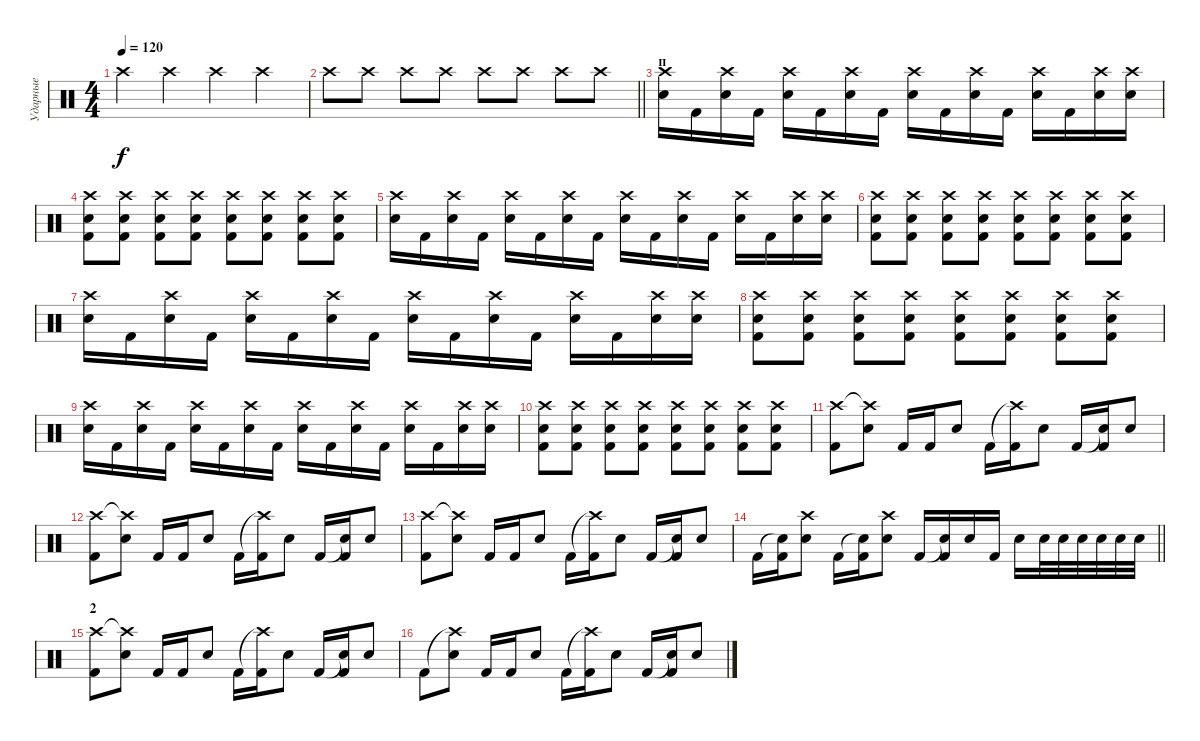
\track ("Ударные" "Ударные") {instrument percussion}
\staff {score}
\articulation defaults
\ts (4 4)
\tempo 120
\clef neutral
\ks c "Crash high (hit)".4{dy f} "Crash high (hit)".4 "Crash high (hit)".4 "Crash high (hit)".4
|
\barLineRight lightlight "Crash high (hit)".8 "Crash high (hit)".8 "Crash high (hit)".8 "Crash high (hit)".8 "Crash high (hit)".8 "Crash high (hit)".8 "Crash high (hit)".8 "Crash high (hit)".8
|
\section ("" "п")
("Snare (hit) 2" "Crash high (hit)").16 "Kick (hit) 2".16 ("Snare (hit) 2" "Crash high (hit)").16 "Kick (hit) 2".16 ("Snare (hit) 2" "Crash high (hit)").16 "Kick (hit) 2".16 ("Snare (hit) 2" "Crash high (hit)").16 "Kick (hit) 2".16 ("Snare (hit) 2" "Crash high (hit)").16 "Kick (hit) 2".16 ("Snare (hit) 2" "Crash high (hit)").16 "Kick (hit) 2".16 ("Snare (hit) 2" "Crash high (hit)").16 "Kick (hit) 2".16 ("Snare (hit) 2" "Crash high (hit)").16 ("Crash high (hit)" "Electric Snare (hit)").16 |
("Crash high (hit)" "Kick (hit) 2" "Electric Snare (hit)").8 ("Crash high (hit)" "Kick (hit) 2" "Electric Snare (hit)").8 ("Crash high (hit)" "Kick (hit) 2" "Electric Snare (hit)").8 ("Crash high (hit)" "Kick (hit) 2" "Electric Snare (hit)").8 ("Crash high (hit)" "Kick (hit) 2" "Electric Snare (hit)").8 ("Crash high (hit)" "Kick (hit) 2" "Electric Snare (hit)").8 ("Crash high (hit)" "Kick (hit) 2" "Electric Snare (hit)").8 ("Crash high (hit)" "Kick (hit) 2" "Electric Snare (hit)").8 |
("Snare (hit) 2" "Crash high (hit)").16 "Kick (hit) 2".16 ("Snare (hit) 2" "Crash high (hit)").16 "Kick (hit) 2".16 ("Snare (hit) 2" "Crash high (hit)").16 "Kick (hit) 2".16 ("Snare (hit) 2" "Crash high (hit)").16 "Kick (hit) 2".16 ("Snare (hit) 2" "Crash high (hit)").16 "Kick (hit) 2".16 ("Snare (hit) 2" "Crash high (hit)").16 "Kick (hit) 2".16 ("Snare (hit) 2" "Crash high (hit)").16 "Kick (hit) 2".16 ("Snare (hit) 2" "Crash high (hit)").16 ("Crash high (hit)" "Electric Snare (hit)").16 |
("Crash high (hit)" "Kick (hit) 2" "Electric Snare (hit)").8 ("Crash high (hit)" "Kick (hit) 2" "Electric Snare (hit)").8 ("Crash high (hit)" "Kick (hit) 2" "Electric Snare (hit)").8 ("Crash high (hit)" "Kick (hit) 2" "Electric Snare (hit)").8 ("Crash high (hit)" "Kick (hit) 2" "Electric Snare (hit)").8 ("Crash high (hit)" "Kick (hit) 2" "Electric Snare (hit)").8 ("Crash high (hit)" "Kick (hit) 2" "Electric Snare (hit)").8 ("Crash high (hit)" "Kick (hit) 2" "Electric Snare (hit)").8 |
("Snare (hit) 2" "Crash high (hit)").16 "Kick (hit) 2".16 ("Snare (hit) 2" "Crash high (hit)").16 "Kick (hit) 2".16 ("Snare (hit) 2" "Crash high (hit)").16 "Kick (hit) 2".16 ("Snare (hit) 2" "Crash high (hit)").16 "Kick (hit) 2".16 ("Snare (hit) 2" "Crash high (hit)").16 "Kick (hit) 2".16 ("Snare (hit) 2" "Crash high (hit)").16 "Kick (hit) 2".16 ("Snare (hit) 2" "Crash high (hit)").16 "Kick (hit) 2".16 ("Snare (hit) 2" "Crash high (hit)").16 ("Crash high (hit)" "Electric Snare (hit)").16 |
("Crash high (hit)" "Kick (hit) 2" "Electric Snare (hit)").8 ("Crash high (hit)" "Kick (hit) 2" "Electric Snare (hit)").8 ("Crash high (hit)" "Kick (hit) 2" "Electric Snare (hit)").8 ("Crash high (hit)" "Kick (hit) 2" "Electric Snare (hit)").8 ("Crash high (hit)" "Kick (hit) 2" "Electric Snare (hit)").8 ("Crash high (hit)" "Kick (hit) 2" "Electric Snare (hit)").8 ("Crash high (hit)" "Kick (hit) 2" "Electric Snare (hit)").8 ("Crash high (hit)" "Kick (hit) 2" "Electric Snare (hit)").8 |
("Snare (hit) 2" "Crash high (hit)").16 "Kick (hit) 2".16 ("Snare (hit) 2" "Crash high (hit)").16 "Kick (hit) 2".16 ("Snare (hit) 2" "Crash high (hit)").16 "Kick (hit) 2".16 ("Snare (hit) 2" "Crash high (hit)").16 "Kick (hit) 2".16 ("Snare (hit) 2" "Crash high (hit)").16 "Kick (hit) 2".16 ("Snare (hit) 2" "Crash high (hit)").16 "Kick (hit) 2".16 ("Snare (hit) 2" "Crash high (hit)").16 "Kick (hit) 2".16 ("Snare (hit) 2" "Crash high (hit)").16 ("Crash high (hit)" "Electric Snare (hit)").16 |
("Crash high (hit)" "Kick (hit) 2" "Electric Snare (hit)").8 ("Crash high (hit)" "Kick (hit) 2" "Electric Snare (hit)").8 ("Crash high (hit)" "Kick (hit) 2" "Electric Snare (hit)").8 ("Crash high (hit)" "Kick (hit) 2" "Electric Snare (hit)").8 ("Crash high (hit)" "Kick (hit) 2" "Electric Snare (hit)").8 ("Crash high (hit)" "Kick (hit) 2" "Electric Snare (hit)").8 ("Crash high (hit)" "Kick (hit) 2" "Electric Snare (hit)").8 ("Crash high (hit)" "Kick (hit) 2" "Electric Snare (hit)").8 |
("Crash high (hit)" "Kick (hit) 2").8 ("Crash high (hit)"{t} "Electric Snare (hit)").8 "Kick (hit) 2".16 "Kick (hit) 2".16 "Electric Snare (hit)".8 "Kick (hit) 2".16 ("Crash high (hit)"{t} "Kick (hit) 2").16 "Electric Snare (hit)".8 "Kick (hit) 2".16 ("Snare (hit)"{t} "Kick (hit) 2").16 "Electric Snare (hit)".8 |
("Crash high (hit)" "Kick (hit) 2").8 ("Crash high (hit)"{t} "Electric Snare (hit)").8 "Kick (hit) 2".16 "Kick (hit) 2".16 "Electric Snare (hit)".8 "Kick (hit) 2".16 ("Crash high (hit)"{t} "Kick (hit) 2").16 "Electric Snare (hit)".8 "Kick (hit) 2".16 ("Snare (hit)"{t} "Kick (hit) 2").16 "Electric Snare (hit)".8 |
("Crash high (hit)" "Kick (hit) 2").8 ("Crash high (hit)"{t} "Electric Snare (hit)").8 "Kick (hit) 2".16 "Kick (hit) 2".16 "Electric Snare (hit)".8 "Kick (hit) 2".16 ("Crash high (hit)"{t} "Kick (hit) 2").16 "Electric Snare (hit)".8 "Kick (hit) 2".16 ("Snare (hit)"{t} "Kick (hit) 2").16 "Electric Snare (hit)".8 |
\barLineRight lightlight "Kick (hit) 2".16
("Snare (hit)"{t} "Kick (hit) 2").16 ("Crash high (hit)" "Electric Snare (hit)").8 "Kick (hit) 2".16 ("Snare (hit)"{t} "Kick (hit) 2").16 ("Crash high (hit)" "Electric Snare (hit)").8 "Kick (hit) 2".16 ("Snare (hit)"{t} "Kick (hit) 2").16 "Electric Snare (hit)".16 "Kick (hit) 2".16 "Electric Snare (hit)".16 "Electric Snare (hit)".32 "Electric Snare (hit)".32 "Electric Snare (hit)".32 "Electric Snare (hit)".32 "Electric Snare (hit)".32 "Electric Snare (hit)".32 |
\section ("" "2")
("Crash high (hit)" "Kick (hit) 2").8 ("Crash high (hit)"{t} "Electric Snare (hit)").8 "Kick (hit) 2".16 "Kick (hit) 2".16 "Electric Snare (hit)".8 "Kick (hit) 2".16 ("Crash high (hit)"{t} "Kick (hit) 2").16 "Electric Snare (hit)".8 "Kick (hit) 2".16 ("Snare (hit)"{t} "Kick (hit) 2").16 "Electric Snare (hit)".8 |
"Kick (hit) 2".8 ("Crash high (hit)"{t} "Electric Snare (hit)").8 "Kick (hit) 2".16 "Kick (hit) 2".16 "Electric Snare (hit)".8 "Kick (hit) 2".16 ("Crash high (hit)"{t} "Kick (hit) 2").16 "Electric Snare (hit)".8 "Kick (hit) 2".16 ("Snare (hit)"{t} "Kick (hit) 2").16 "Electric Snare (hit)".8
